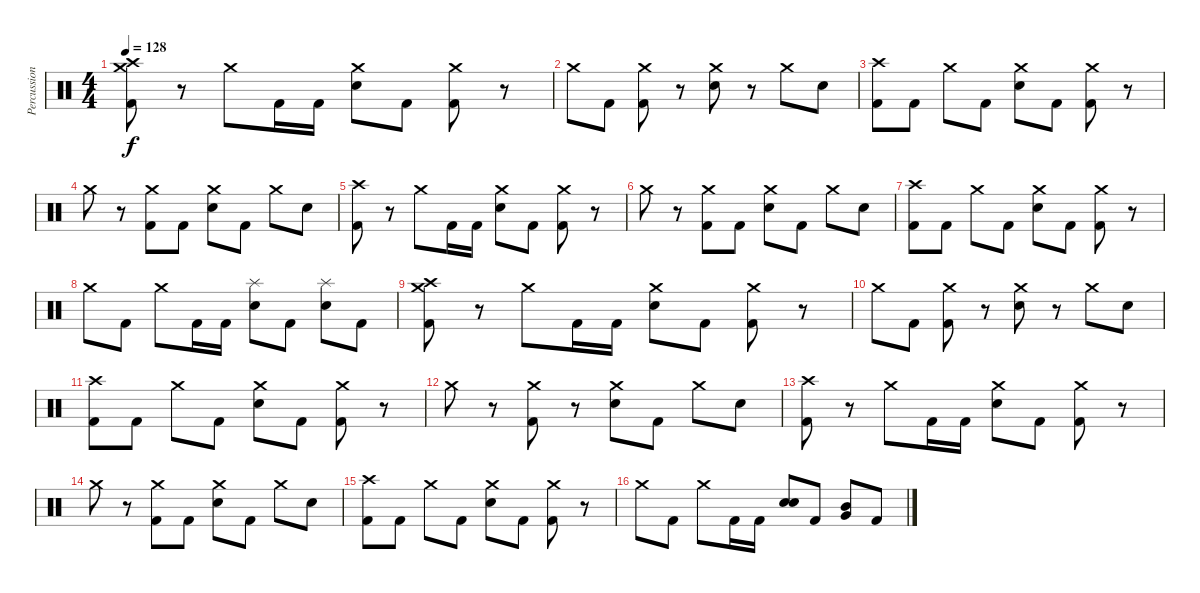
\track ("Percussion" "Percussion") {instrument percussion}
\staff {score}
\articulation defaults
\ts (4 4)
\tempo 128
\clef neutral
\ks c
("Kick (hit) 2" "Crash medium (hit)" "Crash high (hit)").8{dy f} r.8 "Crash medium (hit)".8 "Kick (hit) 2".16 "Kick (hit) 2".16 ("Electric Snare (hit)" "Crash medium (hit)").8 "Kick (hit) 2".8 ("Kick (hit) 2" "Crash medium (hit)").8 r.8 |
"Crash medium (hit)".8 "Kick (hit) 2".8 ("Kick (hit) 2" "Crash medium (hit)").8 r.8 ("Electric Snare (hit)" "Crash medium (hit)").8 r.8 "Crash medium (hit)".8 "Electric Snare (hit)".8 |
("Kick (hit) 2" "Crash high (hit)").8 "Kick (hit) 2".8 "Crash medium (hit)".8 "Kick (hit) 2".8 ("Electric Snare (hit)" "Crash medium (hit)").8 "Kick (hit) 2".8 ("Kick (hit) 2" "Crash medium (hit)").8 r.8 |
"Crash medium (hit)".8 r.8 ("Kick (hit) 2" "Crash medium (hit)").8 "Kick (hit) 2".8 ("Electric Snare (hit)" "Crash medium (hit)").8 "Kick (hit) 2".8 "Crash medium (hit)".8 "Electric Snare (hit)".8 |
("Kick (hit) 2" "Crash high (hit)").8 r.8 "Crash medium (hit)".8 "Kick (hit) 2".16 "Kick (hit) 2".16 ("Electric Snare (hit)" "Crash medium (hit)").8 "Kick (hit) 2".8 ("Kick (hit) 2" "Crash medium (hit)").8 r.8 |
"Crash medium (hit)".8 r.8 ("Kick (hit) 2" "Crash medium (hit)").8 "Kick (hit) 2".8 ("Electric Snare (hit)" "Crash medium (hit)").8 "Kick (hit) 2".8 "Crash medium (hit)".8 "Electric Snare (hit)".8 |
("Kick (hit) 2" "Crash high (hit)").8 "Kick (hit) 2".8 "Crash medium (hit)".8 "Kick (hit) 2".8 ("Electric Snare (hit)" "Crash medium (hit)").8 "Kick (hit) 2".8 ("Kick (hit) 2" "Crash medium (hit)").8 r.8 |
"Crash medium (hit)".8 "Kick (hit) 2".8 "Crash medium (hit)".8 "Kick (hit) 2".16 "Kick (hit) 2".16 ("Electric Snare (hit)" "Splash (hit)").8 "Kick (hit) 2".8 ("Electric Snare (hit)" "Splash (hit)").8 "Kick (hit) 2".8 |
("Kick (hit) 2" "Crash medium (hit)" "Crash high (hit)").8 r.8 "Crash medium (hit)".8 "Kick (hit) 2".16 "Kick (hit) 2".16 ("Electric Snare (hit)" "Crash medium (hit)").8 "Kick (hit) 2".8 ("Kick (hit) 2" "Crash medium (hit)").8 r.8 |
"Crash medium (hit)".8 "Kick (hit) 2".8 ("Kick (hit) 2" "Crash medium (hit)").8 r.8 ("Electric Snare (hit)" "Crash medium (hit)").8 r.8 "Crash medium (hit)".8 "Electric Snare (hit)".8 |
("Kick (hit) 2" "Crash high (hit)").8 "Kick (hit) 2".8 "Crash medium (hit)".8 "Kick (hit) 2".8 ("Electric Snare (hit)" "Crash medium (hit)").8 "Kick (hit) 2".8 ("Kick (hit) 2" "Crash medium (hit)").8 r.8 |
"Crash medium (hit)".8 r.8 ("Kick (hit) 2" "Crash medium (hit)").8 r.8 ("Electric Snare (hit)" "Crash medium (hit)").8 "Kick (hit) 2".8 "Crash medium (hit)".8 "Electric Snare (hit)".8 |
("Kick (hit) 2" "Crash high (hit)").8 r.8 "Crash medium (hit)".8 "Kick (hit) 2".16 "Kick (hit) 2".16 ("Electric Snare (hit)" "Crash medium (hit)").8 "Kick (hit) 2".8 ("Kick (hit) 2" "Crash medium (hit)").8 r.8 |
"Crash medium (hit)".8 r.8 ("Kick (hit) 2" "Crash medium (hit)").8 "Kick (hit) 2".8 ("Electric Snare (hit)" "Crash medium (hit)").8 "Kick (hit) 2".8 "Crash medium (hit)".8 "Electric Snare (hit)".8 |
("Kick (hit) 2" "Crash high (hit)").8 "Kick (hit) 2".8 "Crash medium (hit)".8 "Kick (hit) 2".8 ("Electric Snare (hit)" "Crash medium (hit)").8 "Kick (hit) 2".8 ("Kick (hit) 2" "Crash medium (hit)").8 r.8 |
"Crash medium (hit)".8 "Kick (hit) 2".8 "Crash medium (hit)".8 "Kick (hit) 2".16 "Kick (hit) 2".16 ("Electric Snare (hit)" "Electric Snare (hit)").8 "Kick (hit) 2".8 ("Very Low Tom (hit)" "Mid Tom (hit)").8 "Kick (hit) 2".8
